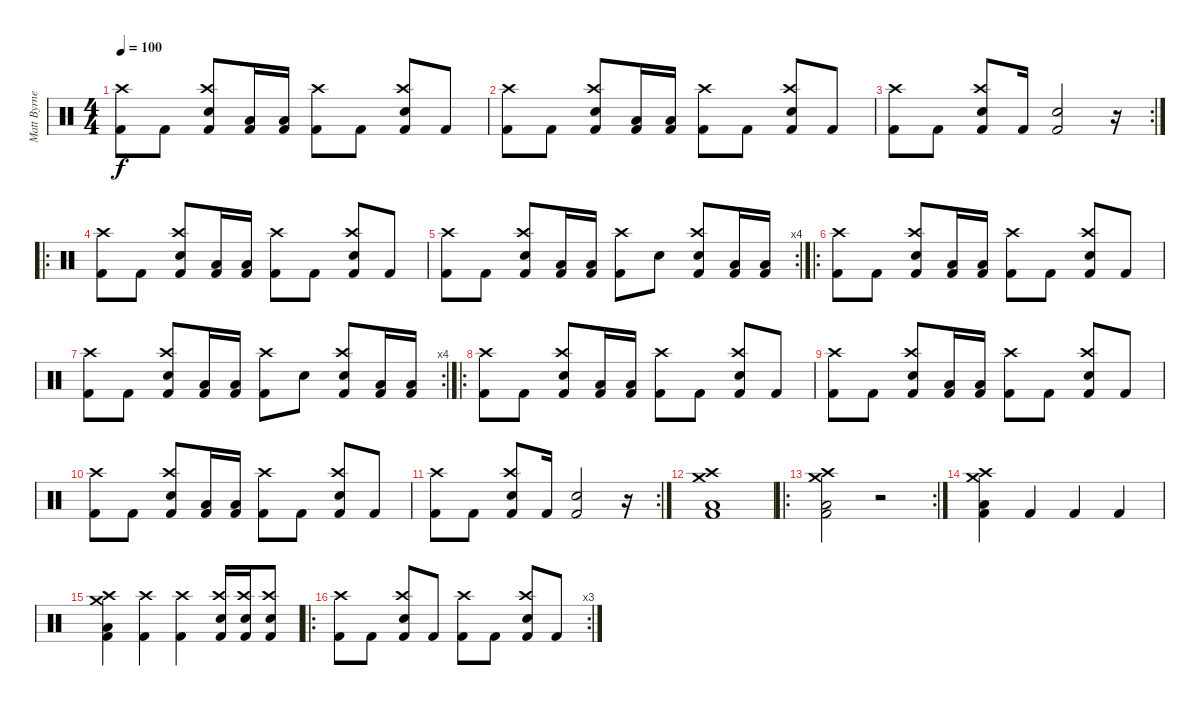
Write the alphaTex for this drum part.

\track ("Matt Byrne" "Matt Byrne") {instrument percussion}
\staff {score}
\articulation defaults
\ts (4 4)
\tempo 100
\clef neutral
\ks c
("Kick (hit) 2" "Crash high (hit)").8{dy f} "Kick (hit) 2".8 ("Crash high (hit)" "Electric Snare (hit)" "Kick (hit) 2").8 ("Low Floor Tom (hit)" "Kick (hit) 2").16 ("Low Floor Tom (hit)" "Kick (hit) 2").16 ("Kick (hit) 2" "Crash high (hit)").8 "Kick (hit) 2".8 ("Crash high (hit)" "Electric Snare (hit)" "Kick (hit) 2").8 "Kick (hit) 2".8 |
("Kick (hit) 2" "Crash high (hit)").8 "Kick (hit) 2".8 ("Crash high (hit)" "Electric Snare (hit)" "Kick (hit) 2").8 ("Low Floor Tom (hit)" "Kick (hit) 2").16 ("Low Floor Tom (hit)" "Kick (hit) 2").16 ("Kick (hit) 2" "Crash high (hit)").8 "Kick (hit) 2".8 ("Crash high (hit)" "Electric Snare (hit)" "Kick (hit) 2").8 "Kick (hit) 2".8 |
\rc 2
("Kick (hit) 2" "Crash high (hit)").8 "Kick (hit) 2".8 ("Crash high (hit)" "Electric Snare (hit)" "Kick (hit) 2").8 "Kick (hit) 2".16 ("Electric Snare (hit)" "Kick (hit) 2").2 r.16 |
\ro
("Kick (hit) 2" "Crash high (hit)").8 "Kick (hit) 2".8 ("Crash high (hit)" "Electric Snare (hit)" "Kick (hit) 2").8 ("Low Floor Tom (hit)" "Kick (hit) 2").16 ("Low Floor Tom (hit)" "Kick (hit) 2").16 ("Kick (hit) 2" "Crash high (hit)").8 "Kick (hit) 2".8 ("Crash high (hit)" "Electric Snare (hit)" "Kick (hit) 2").8 "Kick (hit) 2".8 |
\rc 4
("Kick (hit) 2" "Crash high (hit)").8 "Kick (hit) 2".8 ("Crash high (hit)" "Electric Snare (hit)" "Kick (hit) 2").8 ("Low Floor Tom (hit)" "Kick (hit) 2").16 ("Low Floor Tom (hit)" "Kick (hit) 2").16 ("Kick (hit) 2" "Crash high (hit)").8 "Electric Snare (hit)".8 ("Crash high (hit)" "Electric Snare (hit)" "Kick (hit) 2").8 ("Low Floor Tom (hit)" "Kick (hit) 2").16 ("Low Floor Tom (hit)" "Kick (hit) 2").16 |
\ro
("Kick (hit) 2" "Crash high (hit)").8 "Kick (hit) 2".8 ("Crash high (hit)" "Electric Snare (hit)" "Kick (hit) 2").8 ("Low Floor Tom (hit)" "Kick (hit) 2").16 ("Low Floor Tom (hit)" "Kick (hit) 2").16 ("Kick (hit) 2" "Crash high (hit)").8 "Kick (hit) 2".8 ("Crash high (hit)" "Electric Snare (hit)" "Kick (hit) 2").8 "Kick (hit) 2".8 |
\rc 4
("Kick (hit) 2" "Crash high (hit)").8 "Kick (hit) 2".8 ("Crash high (hit)" "Electric Snare (hit)" "Kick (hit) 2").8 ("Low Floor Tom (hit)" "Kick (hit) 2").16 ("Low Floor Tom (hit)" "Kick (hit) 2").16 ("Kick (hit) 2" "Crash high (hit)").8 "Electric Snare (hit)".8 ("Crash high (hit)" "Electric Snare (hit)" "Kick (hit) 2").8 ("Low Floor Tom (hit)" "Kick (hit) 2").16 ("Low Floor Tom (hit)" "Kick (hit) 2").16 |
\ro
("Kick (hit) 2" "Crash high (hit)").8 "Kick (hit) 2".8 ("Crash high (hit)" "Electric Snare (hit)" "Kick (hit) 2").8 ("Low Floor Tom (hit)" "Kick (hit) 2").16 ("Low Floor Tom (hit)" "Kick (hit) 2").16 ("Kick (hit) 2" "Crash high (hit)").8 "Kick (hit) 2".8 ("Crash high (hit)" "Electric Snare (hit)" "Kick (hit) 2").8 "Kick (hit) 2".8 |
("Kick (hit) 2" "Crash high (hit)").8 "Kick (hit) 2".8 ("Crash high (hit)" "Electric Snare (hit)" "Kick (hit) 2").8 ("Low Floor Tom (hit)" "Kick (hit) 2").16 ("Low Floor Tom (hit)" "Kick (hit) 2").16 ("Kick (hit) 2" "Crash high (hit)").8 "Kick (hit) 2".8 ("Crash high (hit)" "Electric Snare (hit)" "Kick (hit) 2").8 "Kick (hit) 2".8 |
("Kick (hit) 2" "Crash high (hit)").8 "Kick (hit) 2".8 ("Crash high (hit)" "Electric Snare (hit)" "Kick (hit) 2").8 ("Low Floor Tom (hit)" "Kick (hit) 2").16 ("Low Floor Tom (hit)" "Kick (hit) 2").16 ("Kick (hit) 2" "Crash high (hit)").8 "Kick (hit) 2".8 ("Crash high (hit)" "Electric Snare (hit)" "Kick (hit) 2").8 "Kick (hit) 2".8 |
\rc 2
("Kick (hit) 2" "Crash high (hit)").8 "Kick (hit) 2".8 ("Crash high (hit)" "Electric Snare (hit)" "Kick (hit) 2").8 "Kick (hit) 2".16 ("Electric Snare (hit)" "Kick (hit) 2").2 r.16 |
("Low Floor Tom (hit)" "Kick (hit) 2" "Crash high (hit)" "Crash medium (hit)").1 |
\ro
\rc 2
("Low Floor Tom (hit)" "Kick (hit) 2" "Crash high (hit)" "Crash medium (hit)").2 r.2 |
("Low Floor Tom (hit)" "Kick (hit) 2" "Crash high (hit)" "Crash medium (hit)").4 "Kick (hit) 2".4 "Kick (hit) 2".4 "Kick (hit) 2".4 |
("Low Floor Tom (hit)" "Kick (hit) 2" "Crash high (hit)" "Crash medium (hit)").4 ("Crash high (hit)" "Kick (hit) 2").4 ("Crash high (hit)" "Kick (hit) 2").4 ("Kick (hit) 2" "Crash high (hit)" "Electric Snare (hit)").16 ("Crash high (hit)" "Kick (hit) 2" "Electric Snare (hit)").16 ("Crash high (hit)" "Kick (hit) 2" "Electric Snare (hit)").8 |
\ro
\rc 3
("Kick (hit) 2" "Crash high (hit)").8 "Kick (hit) 2".8 ("Crash high (hit)" "Electric Snare (hit)" "Kick (hit) 2").8 "Kick (hit) 2".8 ("Kick (hit) 2" "Crash high (hit)").8 "Kick (hit) 2".8 ("Crash high (hit)" "Electric Snare (hit)" "Kick (hit) 2").8 "Kick (hit) 2".8
